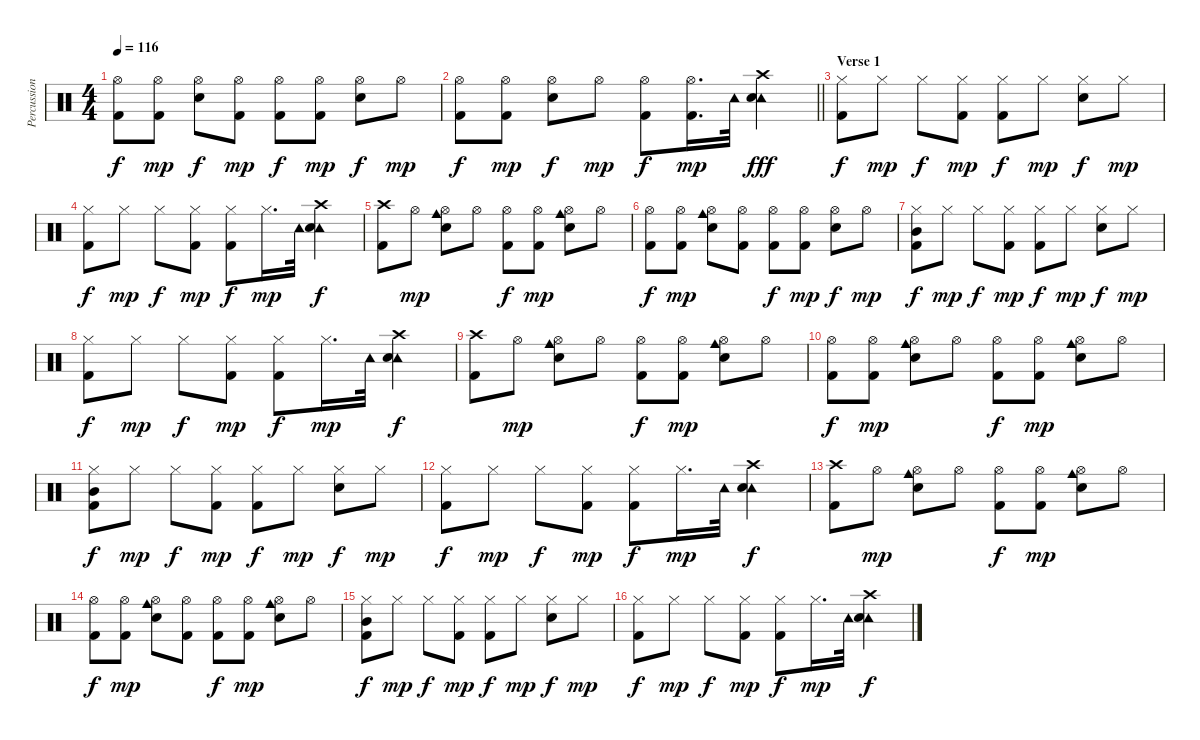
\track ("Percussion (Peter)" "Percussion") {instrument percussion}
\staff {score}
\articulation defaults
\ts (4 4)
\tempo 116
\clef neutral
\ks c
("Hi-Hat (open)" "Kick (hit) 2").8{dy f} ("Hi-Hat (open)" "Kick (hit) 2").8{dy mp} ("Hi-Hat (open)" "Snare (hit) 2").8{dy f} ("Hi-Hat (open)" "Kick (hit) 2").8{dy mp} ("Hi-Hat (open)" "Kick (hit) 2").8{dy f} ("Hi-Hat (open)" "Kick (hit) 2").8{dy mp} ("Hi-Hat (open)" "Snare (hit) 2").8{dy f} "Hi-Hat (open)".8{dy mp} |
\barLineRight lightlight
("Hi-Hat (open)" "Kick (hit) 2").8{dy f} ("Hi-Hat (open)" "Kick (hit) 2").8{dy mp} ("Hi-Hat (open)" "Snare (hit) 2").8{dy f} "Hi-Hat (open)".8{dy mp} ("Hi-Hat (open)" "Kick (hit) 2").8{dy f} ("Hi-Hat (open)" "Kick (hit) 2").16{d dy mp} "Tambourine (hit)".32 ("Crash high (hit)" "Tambourine (hit)" "Snare (hit) 2").4{dy fff} |
\section ("" "Verse 1")
("Hi-Hat (closed)" "Kick (hit) 2").8{dy f} "Hi-Hat (closed)".8{dy mp} "Hi-Hat (closed)".8{dy f} ("Hi-Hat (closed)" "Kick (hit) 2").8{dy mp} ("Hi-Hat (closed)" "Kick (hit) 2").8{dy f} "Hi-Hat (closed)".8{dy mp} ("Hi-Hat (closed)" "Snare (hit) 2").8{dy f} "Hi-Hat (closed)".8{dy mp} |
("Hi-Hat (closed)" "Kick (hit) 2").8{dy f} "Hi-Hat (closed)".8{dy mp} "Hi-Hat (closed)".8{dy f} ("Hi-Hat (closed)" "Kick (hit) 2").8{dy mp} ("Hi-Hat (closed)" "Kick (hit) 2").8{dy f} "Hi-Hat (closed)".16{d dy mp} "Tambourine (hit)".32 ("Crash high (hit)" "Tambourine (hit)" "Snare (hit) 2").4{dy f} |
("Crash high (hit)" "Kick (hit) 2").8 "Hi-Hat (open)".8{dy mp} ("Cowbell medium (hit)" "Hi-Hat (open)" "Snare (hit) 2").8 "Hi-Hat (open)".8 ("Hi-Hat (open)" "Kick (hit) 2").8{dy f} ("Hi-Hat (open)" "Kick (hit) 2").8{dy mp} ("Cowbell medium (hit)" "Hi-Hat (open)" "Snare (hit) 2").8 "Hi-Hat (open)".8 |
("Hi-Hat (open)" "Kick (hit) 2").8{dy f} ("Hi-Hat (open)" "Kick (hit) 2").8{dy mp} ("Cowbell medium (hit)" "Hi-Hat (open)" "Snare (hit) 2").8 ("Hi-Hat (open)" "Kick (hit) 2").8 ("Hi-Hat (open)" "Kick (hit) 2").8{dy f} ("Hi-Hat (open)" "Kick (hit) 2").8{dy mp} ("Hi-Hat (open)" "Snare (hit) 2").8{dy f} "Hi-Hat (open)".8{dy mp} |
("Hi-Hat (closed)" "Mid Tom (hit)" "Kick (hit) 2").8{dy f} "Hi-Hat (closed)".8{dy mp} "Hi-Hat (closed)".8{dy f} ("Hi-Hat (closed)" "Kick (hit) 2").8{dy mp} ("Hi-Hat (closed)" "Kick (hit) 2").8{dy f} "Hi-Hat (closed)".8{dy mp} ("Hi-Hat (closed)" "Snare (hit) 2").8{dy f} "Hi-Hat (closed)".8{dy mp} |
("Hi-Hat (closed)" "Kick (hit) 2").8{dy f} "Hi-Hat (closed)".8{dy mp} "Hi-Hat (closed)".8{dy f} ("Hi-Hat (closed)" "Kick (hit) 2").8{dy mp} ("Hi-Hat (closed)" "Kick (hit) 2").8{dy f} "Hi-Hat (closed)".16{d dy mp} "Tambourine (hit)".32 ("Crash high (hit)" "Tambourine (hit)" "Snare (hit) 2").4{dy f} |
("Crash high (hit)" "Kick (hit) 2").8 "Hi-Hat (open)".8{dy mp} ("Cowbell medium (hit)" "Hi-Hat (open)" "Snare (hit) 2").8 "Hi-Hat (open)".8 ("Hi-Hat (open)" "Kick (hit) 2").8{dy f} ("Hi-Hat (open)" "Kick (hit) 2").8{dy mp} ("Cowbell medium (hit)" "Hi-Hat (open)" "Snare (hit) 2").8 "Hi-Hat (open)".8 |
("Hi-Hat (open)" "Kick (hit) 2").8{dy f} ("Hi-Hat (open)" "Kick (hit) 2").8{dy mp} ("Cowbell medium (hit)" "Hi-Hat (open)" "Snare (hit) 2").8 "Hi-Hat (open)".8 ("Hi-Hat (open)" "Kick (hit) 2").8{dy f} ("Hi-Hat (open)" "Kick (hit) 2").8{dy mp} ("Cowbell medium (hit)" "Hi-Hat (open)" "Snare (hit) 2").8 "Hi-Hat (open)".8 |
("Hi-Hat (closed)" "Mid Tom (hit)" "Kick (hit) 2").8{dy f} "Hi-Hat (closed)".8{dy mp} "Hi-Hat (closed)".8{dy f} ("Hi-Hat (closed)" "Kick (hit) 2").8{dy mp} ("Hi-Hat (closed)" "Kick (hit) 2").8{dy f} "Hi-Hat (closed)".8{dy mp} ("Hi-Hat (closed)" "Snare (hit) 2").8{dy f} "Hi-Hat (closed)".8{dy mp} |
("Hi-Hat (closed)" "Kick (hit) 2").8{dy f} "Hi-Hat (closed)".8{dy mp} "Hi-Hat (closed)".8{dy f} ("Hi-Hat (closed)" "Kick (hit) 2").8{dy mp} ("Hi-Hat (closed)" "Kick (hit) 2").8{dy f} "Hi-Hat (closed)".16{d dy mp} "Tambourine (hit)".32 ("Crash high (hit)" "Tambourine (hit)" "Snare (hit) 2").4{dy f} |
("Crash high (hit)" "Kick (hit) 2").8 "Hi-Hat (open)".8{dy mp} ("Cowbell medium (hit)" "Hi-Hat (open)" "Snare (hit) 2").8 "Hi-Hat (open)".8 ("Hi-Hat (open)" "Kick (hit) 2").8{dy f} ("Hi-Hat (open)" "Kick (hit) 2").8{dy mp} ("Cowbell medium (hit)" "Hi-Hat (open)" "Snare (hit) 2").8 "Hi-Hat (open)".8 |
("Hi-Hat (open)" "Kick (hit) 2").8{dy f} ("Hi-Hat (open)" "Kick (hit) 2").8{dy mp} ("Cowbell medium (hit)" "Hi-Hat (open)" "Snare (hit) 2").8 ("Hi-Hat (open)" "Kick (hit) 2").8 ("Hi-Hat (open)" "Kick (hit) 2").8{dy f} ("Hi-Hat (open)" "Kick (hit) 2").8{dy mp} ("Cowbell medium (hit)" "Hi-Hat (open)" "Snare (hit) 2").8 "Hi-Hat (open)".8 |
("Hi-Hat (closed)" "Mid Tom (hit)" "Kick (hit) 2").8{dy f} "Hi-Hat (closed)".8{dy mp} "Hi-Hat (closed)".8{dy f} ("Hi-Hat (closed)" "Kick (hit) 2").8{dy mp} ("Hi-Hat (closed)" "Kick (hit) 2").8{dy f} "Hi-Hat (closed)".8{dy mp} ("Hi-Hat (closed)" "Snare (hit) 2").8{dy f} "Hi-Hat (closed)".8{dy mp} |
("Hi-Hat (closed)" "Kick (hit) 2").8{dy f} "Hi-Hat (closed)".8{dy mp} "Hi-Hat (closed)".8{dy f} ("Hi-Hat (closed)" "Kick (hit) 2").8{dy mp} ("Hi-Hat (closed)" "Kick (hit) 2").8{dy f} "Hi-Hat (closed)".16{d dy mp} "Tambourine (hit)".32 ("Crash high (hit)" "Tambourine (hit)" "Snare (hit) 2").4{dy f}
